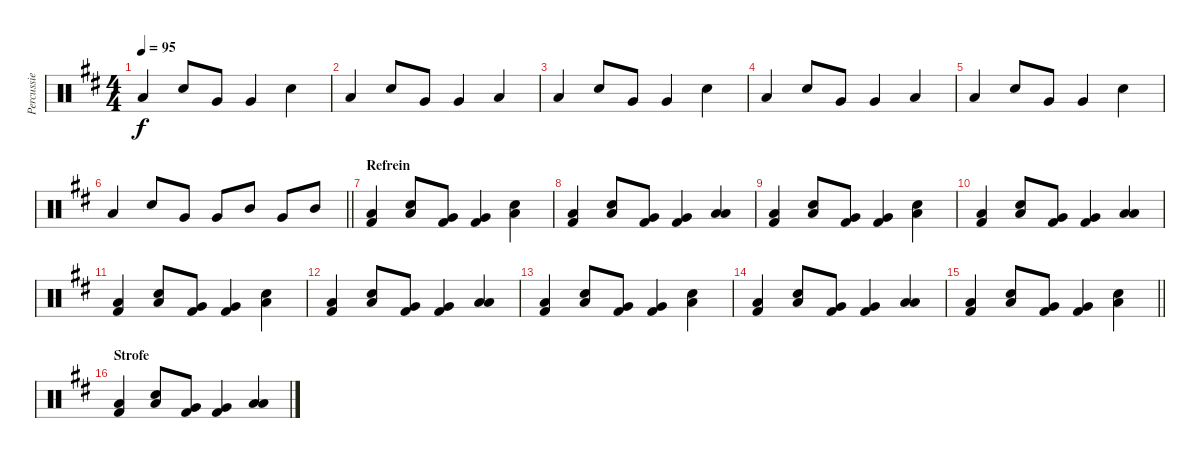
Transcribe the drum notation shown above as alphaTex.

\track ("Percussie" "Percussie") {instrument percussion}
\staff {score}
\articulation defaults
\ts (4 4)
\tempo 95
\clef neutral
\ks d "Low Tom (hit)".4{dy f} "Electric Snare (hit)".8 "Very Low Tom (hit)".8 "Very Low Tom (hit)".4 "Electric Snare (hit)".4
|
"Low Tom (hit)".4 "Electric Snare (hit)".8 "Very Low Tom (hit)".8 "Very Low Tom (hit)".4 "Low Tom (hit)".4 |
"Low Tom (hit)".4 "Electric Snare (hit)".8 "Very Low Tom (hit)".8 "Very Low Tom (hit)".4 "Electric Snare (hit)".4 |
"Low Tom (hit)".4 "Electric Snare (hit)".8 "Very Low Tom (hit)".8 "Very Low Tom (hit)".4 "Low Tom (hit)".4 |
"Low Tom (hit)".4 "Electric Snare (hit)".8 "Very Low Tom (hit)".8 "Very Low Tom (hit)".4 "Electric Snare (hit)".4 |
\barLineRight lightlight "Low Tom (hit)".4 "Electric Snare (hit)".8 "Very Low Tom (hit)".8 "Very Low Tom (hit)".8 "Mid Tom (hit)".8 "Very Low Tom (hit)".8 "Mid Tom (hit)".8
|
\section ("" "Refrein")
("Low Tom (hit)" "Kick (hit) 2").4 ("Electric Snare (hit)" "Low Tom (hit)").8 ("Very Low Tom (hit)" "Kick (hit) 2").8 ("Very Low Tom (hit)" "Kick (hit) 2").4 ("Electric Snare (hit)" "Low Tom (hit)").4 |
("Low Tom (hit)" "Kick (hit) 2").4 ("Electric Snare (hit)" "Low Floor Tom (hit)").8 ("Very Low Tom (hit)" "Kick (hit) 2").8 ("Very Low Tom (hit)" "Kick (hit) 2").4 ("Low Tom (hit)" "Low Floor Tom (hit)").4 |
("Low Tom (hit)" "Kick (hit) 2").4 ("Electric Snare (hit)" "Low Tom (hit)").8 ("Very Low Tom (hit)" "Kick (hit) 2").8 ("Very Low Tom (hit)" "Kick (hit) 2").4 ("Electric Snare (hit)" "Low Tom (hit)").4 |
("Low Tom (hit)" "Kick (hit) 2").4 ("Electric Snare (hit)" "Low Floor Tom (hit)").8 ("Very Low Tom (hit)" "Kick (hit) 2").8 ("Very Low Tom (hit)" "Kick (hit) 2").4 ("Low Tom (hit)" "Low Floor Tom (hit)").4 |
("Low Tom (hit)" "Kick (hit) 2").4 ("Electric Snare (hit)" "Low Tom (hit)").8 ("Very Low Tom (hit)" "Kick (hit) 2").8 ("Very Low Tom (hit)" "Kick (hit) 2").4 ("Electric Snare (hit)" "Low Tom (hit)").4 |
("Low Tom (hit)" "Kick (hit) 2").4 ("Electric Snare (hit)" "Low Floor Tom (hit)").8 ("Very Low Tom (hit)" "Kick (hit) 2").8 ("Very Low Tom (hit)" "Kick (hit) 2").4 ("Low Tom (hit)" "Low Floor Tom (hit)").4 |
("Low Tom (hit)" "Kick (hit) 2").4 ("Electric Snare (hit)" "Low Tom (hit)").8 ("Very Low Tom (hit)" "Kick (hit) 2").8 ("Very Low Tom (hit)" "Kick (hit) 2").4 ("Electric Snare (hit)" "Low Tom (hit)").4 |
("Low Tom (hit)" "Kick (hit) 2").4 ("Electric Snare (hit)" "Low Floor Tom (hit)").8 ("Very Low Tom (hit)" "Kick (hit) 2").8 ("Very Low Tom (hit)" "Kick (hit) 2").4 ("Low Tom (hit)" "Low Floor Tom (hit)").4 |
\barLineRight lightlight
("Low Tom (hit)" "Kick (hit) 2").4 ("Electric Snare (hit)" "Low Tom (hit)").8 ("Very Low Tom (hit)" "Kick (hit) 2").8 ("Very Low Tom (hit)" "Kick (hit) 2").4 ("Electric Snare (hit)" "Low Tom (hit)").4 |
\section ("" "Strofe")
("Low Tom (hit)" "Kick (hit) 2").4 ("Electric Snare (hit)" "Low Floor Tom (hit)").8 ("Very Low Tom (hit)" "Kick (hit) 2").8 ("Very Low Tom (hit)" "Kick (hit) 2").4 ("Low Tom (hit)" "Low Floor Tom (hit)").4
